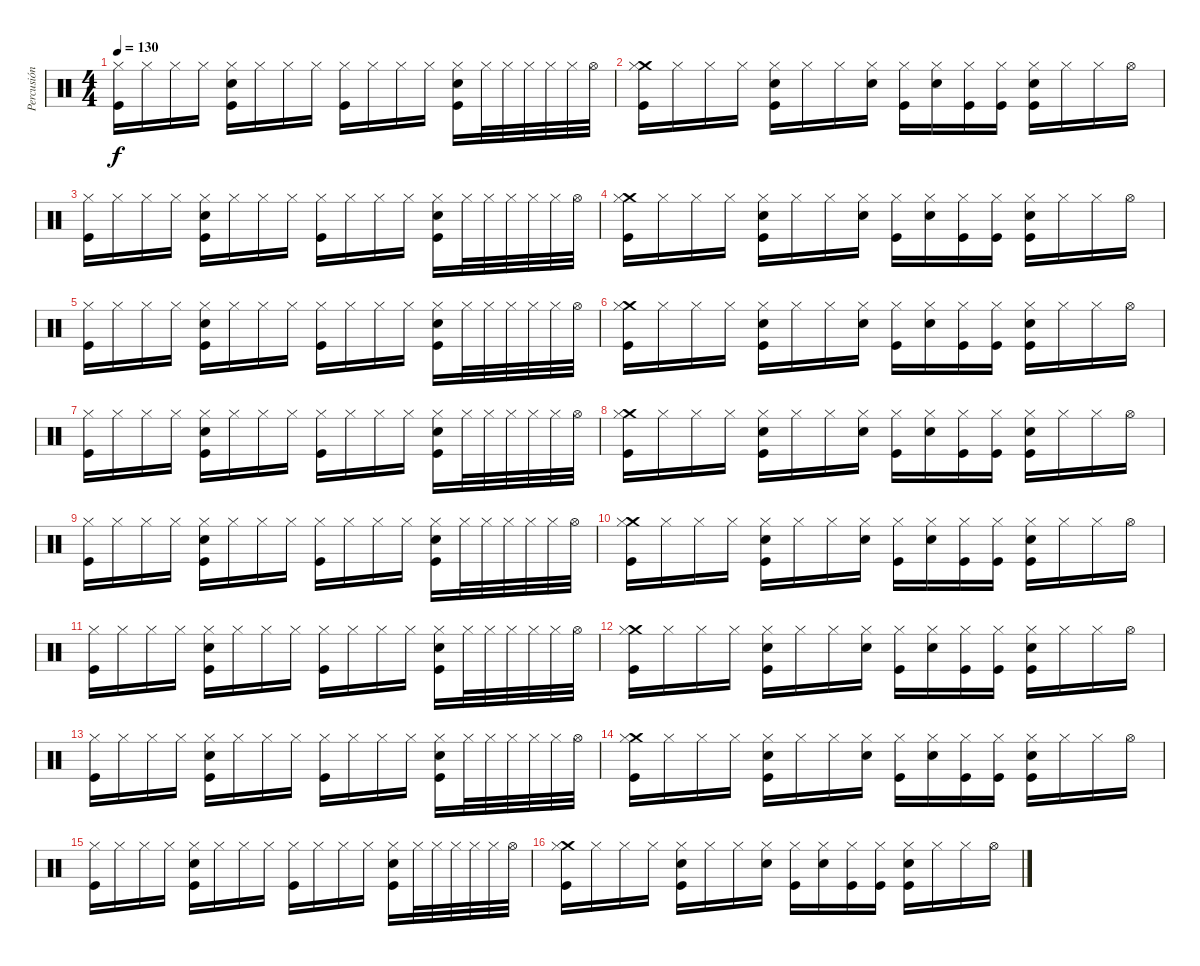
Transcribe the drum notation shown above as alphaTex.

\track ("Percusión" "Percusión") {instrument percussion}
\staff {score}
\articulation defaults
\ts (4 4)
\tempo 130
\clef neutral
\ks c
("Kick (hit)" "Hi-Hat (closed)").16{dy f} "Hi-Hat (closed)".16 "Hi-Hat (closed)".16 "Hi-Hat (closed)".16 ("Kick (hit)" "Snare (hit) 2" "Hi-Hat (closed)").16 "Hi-Hat (closed)".16 "Hi-Hat (closed)".16 "Hi-Hat (closed)".16 ("Kick (hit)" "Hi-Hat (closed)").16 "Hi-Hat (closed)".16 "Hi-Hat (closed)".16 "Hi-Hat (closed)".16 ("Kick (hit)" "Snare (hit) 2" "Hi-Hat (closed)").16 "Hi-Hat (closed)".32 "Hi-Hat (closed)".32 "Hi-Hat (closed)".32 "Hi-Hat (closed)".32 "Hi-Hat (closed)".32 "Hi-Hat (open)".32 |
("Kick (hit)" "Crash medium (hit)" "Hi-Hat (closed)").16 "Hi-Hat (closed)".16 "Hi-Hat (closed)".16 "Hi-Hat (closed)".16 ("Kick (hit)" "Snare (hit) 2" "Hi-Hat (closed)").16 "Hi-Hat (closed)".16 "Hi-Hat (closed)".16 ("Snare (hit) 2" "Hi-Hat (closed)").16 ("Kick (hit)" "Hi-Hat (closed)").16 ("Snare (hit) 2" "Hi-Hat (closed)").16 ("Kick (hit)" "Hi-Hat (closed)").16 ("Kick (hit)" "Hi-Hat (closed)").16 ("Kick (hit)" "Snare (hit) 2" "Hi-Hat (closed)").16 "Hi-Hat (closed)".16 "Hi-Hat (closed)".16 "Hi-Hat (open)".16 |
("Kick (hit)" "Hi-Hat (closed)").16 "Hi-Hat (closed)".16 "Hi-Hat (closed)".16 "Hi-Hat (closed)".16 ("Kick (hit)" "Snare (hit) 2" "Hi-Hat (closed)").16 "Hi-Hat (closed)".16 "Hi-Hat (closed)".16 "Hi-Hat (closed)".16 ("Kick (hit)" "Hi-Hat (closed)").16 "Hi-Hat (closed)".16 "Hi-Hat (closed)".16 "Hi-Hat (closed)".16 ("Kick (hit)" "Snare (hit) 2" "Hi-Hat (closed)").16 "Hi-Hat (closed)".32 "Hi-Hat (closed)".32 "Hi-Hat (closed)".32 "Hi-Hat (closed)".32 "Hi-Hat (closed)".32 "Hi-Hat (open)".32 |
("Kick (hit)" "Crash medium (hit)" "Hi-Hat (closed)").16 "Hi-Hat (closed)".16 "Hi-Hat (closed)".16 "Hi-Hat (closed)".16 ("Kick (hit)" "Snare (hit) 2" "Hi-Hat (closed)").16 "Hi-Hat (closed)".16 "Hi-Hat (closed)".16 ("Snare (hit) 2" "Hi-Hat (closed)").16 ("Kick (hit)" "Hi-Hat (closed)").16 ("Snare (hit) 2" "Hi-Hat (closed)").16 ("Kick (hit)" "Hi-Hat (closed)").16 ("Kick (hit)" "Hi-Hat (closed)").16 ("Kick (hit)" "Snare (hit) 2" "Hi-Hat (closed)").16 "Hi-Hat (closed)".16 "Hi-Hat (closed)".16 "Hi-Hat (open)".16 |
("Kick (hit)" "Hi-Hat (closed)").16 "Hi-Hat (closed)".16 "Hi-Hat (closed)".16 "Hi-Hat (closed)".16 ("Kick (hit)" "Snare (hit) 2" "Hi-Hat (closed)").16 "Hi-Hat (closed)".16 "Hi-Hat (closed)".16 "Hi-Hat (closed)".16 ("Kick (hit)" "Hi-Hat (closed)").16 "Hi-Hat (closed)".16 "Hi-Hat (closed)".16 "Hi-Hat (closed)".16 ("Kick (hit)" "Snare (hit) 2" "Hi-Hat (closed)").16 "Hi-Hat (closed)".32 "Hi-Hat (closed)".32 "Hi-Hat (closed)".32 "Hi-Hat (closed)".32 "Hi-Hat (closed)".32 "Hi-Hat (open)".32 |
("Kick (hit)" "Crash medium (hit)" "Hi-Hat (closed)").16 "Hi-Hat (closed)".16 "Hi-Hat (closed)".16 "Hi-Hat (closed)".16 ("Kick (hit)" "Snare (hit) 2" "Hi-Hat (closed)").16 "Hi-Hat (closed)".16 "Hi-Hat (closed)".16 ("Snare (hit) 2" "Hi-Hat (closed)").16 ("Kick (hit)" "Hi-Hat (closed)").16 ("Snare (hit) 2" "Hi-Hat (closed)").16 ("Kick (hit)" "Hi-Hat (closed)").16 ("Kick (hit)" "Hi-Hat (closed)").16 ("Kick (hit)" "Snare (hit) 2" "Hi-Hat (closed)").16 "Hi-Hat (closed)".16 "Hi-Hat (closed)".16 "Hi-Hat (open)".16 |
("Kick (hit)" "Hi-Hat (closed)").16 "Hi-Hat (closed)".16 "Hi-Hat (closed)".16 "Hi-Hat (closed)".16 ("Kick (hit)" "Snare (hit) 2" "Hi-Hat (closed)").16 "Hi-Hat (closed)".16 "Hi-Hat (closed)".16 "Hi-Hat (closed)".16 ("Kick (hit)" "Hi-Hat (closed)").16 "Hi-Hat (closed)".16 "Hi-Hat (closed)".16 "Hi-Hat (closed)".16 ("Kick (hit)" "Snare (hit) 2" "Hi-Hat (closed)").16 "Hi-Hat (closed)".32 "Hi-Hat (closed)".32 "Hi-Hat (closed)".32 "Hi-Hat (closed)".32 "Hi-Hat (closed)".32 "Hi-Hat (open)".32 |
("Kick (hit)" "Crash medium (hit)" "Hi-Hat (closed)").16 "Hi-Hat (closed)".16 "Hi-Hat (closed)".16 "Hi-Hat (closed)".16 ("Kick (hit)" "Snare (hit) 2" "Hi-Hat (closed)").16 "Hi-Hat (closed)".16 "Hi-Hat (closed)".16 ("Snare (hit) 2" "Hi-Hat (closed)").16 ("Kick (hit)" "Hi-Hat (closed)").16 ("Snare (hit) 2" "Hi-Hat (closed)").16 ("Kick (hit)" "Hi-Hat (closed)").16 ("Kick (hit)" "Hi-Hat (closed)").16 ("Kick (hit)" "Snare (hit) 2" "Hi-Hat (closed)").16 "Hi-Hat (closed)".16 "Hi-Hat (closed)".16 "Hi-Hat (open)".16 |
("Kick (hit)" "Hi-Hat (closed)").16 "Hi-Hat (closed)".16 "Hi-Hat (closed)".16 "Hi-Hat (closed)".16 ("Kick (hit)" "Snare (hit) 2" "Hi-Hat (closed)").16 "Hi-Hat (closed)".16 "Hi-Hat (closed)".16 "Hi-Hat (closed)".16 ("Kick (hit)" "Hi-Hat (closed)").16 "Hi-Hat (closed)".16 "Hi-Hat (closed)".16 "Hi-Hat (closed)".16 ("Kick (hit)" "Snare (hit) 2" "Hi-Hat (closed)").16 "Hi-Hat (closed)".32 "Hi-Hat (closed)".32 "Hi-Hat (closed)".32 "Hi-Hat (closed)".32 "Hi-Hat (closed)".32 "Hi-Hat (open)".32 |
("Kick (hit)" "Crash medium (hit)" "Hi-Hat (closed)").16 "Hi-Hat (closed)".16 "Hi-Hat (closed)".16 "Hi-Hat (closed)".16 ("Kick (hit)" "Snare (hit) 2" "Hi-Hat (closed)").16 "Hi-Hat (closed)".16 "Hi-Hat (closed)".16 ("Snare (hit) 2" "Hi-Hat (closed)").16 ("Kick (hit)" "Hi-Hat (closed)").16 ("Snare (hit) 2" "Hi-Hat (closed)").16 ("Kick (hit)" "Hi-Hat (closed)").16 ("Kick (hit)" "Hi-Hat (closed)").16 ("Kick (hit)" "Snare (hit) 2" "Hi-Hat (closed)").16 "Hi-Hat (closed)".16 "Hi-Hat (closed)".16 "Hi-Hat (open)".16 |
("Kick (hit)" "Hi-Hat (closed)").16 "Hi-Hat (closed)".16 "Hi-Hat (closed)".16 "Hi-Hat (closed)".16 ("Kick (hit)" "Snare (hit) 2" "Hi-Hat (closed)").16 "Hi-Hat (closed)".16 "Hi-Hat (closed)".16 "Hi-Hat (closed)".16 ("Kick (hit)" "Hi-Hat (closed)").16 "Hi-Hat (closed)".16 "Hi-Hat (closed)".16 "Hi-Hat (closed)".16 ("Kick (hit)" "Snare (hit) 2" "Hi-Hat (closed)").16 "Hi-Hat (closed)".32 "Hi-Hat (closed)".32 "Hi-Hat (closed)".32 "Hi-Hat (closed)".32 "Hi-Hat (closed)".32 "Hi-Hat (open)".32 |
("Kick (hit)" "Crash medium (hit)" "Hi-Hat (closed)").16 "Hi-Hat (closed)".16 "Hi-Hat (closed)".16 "Hi-Hat (closed)".16 ("Kick (hit)" "Snare (hit) 2" "Hi-Hat (closed)").16 "Hi-Hat (closed)".16 "Hi-Hat (closed)".16 ("Snare (hit) 2" "Hi-Hat (closed)").16 ("Kick (hit)" "Hi-Hat (closed)").16 ("Snare (hit) 2" "Hi-Hat (closed)").16 ("Kick (hit)" "Hi-Hat (closed)").16 ("Kick (hit)" "Hi-Hat (closed)").16 ("Kick (hit)" "Snare (hit) 2" "Hi-Hat (closed)").16 "Hi-Hat (closed)".16 "Hi-Hat (closed)".16 "Hi-Hat (open)".16 |
("Kick (hit)" "Hi-Hat (closed)").16 "Hi-Hat (closed)".16 "Hi-Hat (closed)".16 "Hi-Hat (closed)".16 ("Kick (hit)" "Snare (hit) 2" "Hi-Hat (closed)").16 "Hi-Hat (closed)".16 "Hi-Hat (closed)".16 "Hi-Hat (closed)".16 ("Kick (hit)" "Hi-Hat (closed)").16 "Hi-Hat (closed)".16 "Hi-Hat (closed)".16 "Hi-Hat (closed)".16 ("Kick (hit)" "Snare (hit) 2" "Hi-Hat (closed)").16 "Hi-Hat (closed)".32 "Hi-Hat (closed)".32 "Hi-Hat (closed)".32 "Hi-Hat (closed)".32 "Hi-Hat (closed)".32 "Hi-Hat (open)".32 |
("Kick (hit)" "Crash medium (hit)" "Hi-Hat (closed)").16 "Hi-Hat (closed)".16 "Hi-Hat (closed)".16 "Hi-Hat (closed)".16 ("Kick (hit)" "Snare (hit) 2" "Hi-Hat (closed)").16 "Hi-Hat (closed)".16 "Hi-Hat (closed)".16 ("Snare (hit) 2" "Hi-Hat (closed)").16 ("Kick (hit)" "Hi-Hat (closed)").16 ("Snare (hit) 2" "Hi-Hat (closed)").16 ("Kick (hit)" "Hi-Hat (closed)").16 ("Kick (hit)" "Hi-Hat (closed)").16 ("Kick (hit)" "Snare (hit) 2" "Hi-Hat (closed)").16 "Hi-Hat (closed)".16 "Hi-Hat (closed)".16 "Hi-Hat (open)".16 |
("Kick (hit)" "Hi-Hat (closed)").16 "Hi-Hat (closed)".16 "Hi-Hat (closed)".16 "Hi-Hat (closed)".16 ("Kick (hit)" "Snare (hit) 2" "Hi-Hat (closed)").16 "Hi-Hat (closed)".16 "Hi-Hat (closed)".16 "Hi-Hat (closed)".16 ("Kick (hit)" "Hi-Hat (closed)").16 "Hi-Hat (closed)".16 "Hi-Hat (closed)".16 "Hi-Hat (closed)".16 ("Kick (hit)" "Snare (hit) 2" "Hi-Hat (closed)").16 "Hi-Hat (closed)".32 "Hi-Hat (closed)".32 "Hi-Hat (closed)".32 "Hi-Hat (closed)".32 "Hi-Hat (closed)".32 "Hi-Hat (open)".32 |
("Kick (hit)" "Crash medium (hit)" "Hi-Hat (closed)").16 "Hi-Hat (closed)".16 "Hi-Hat (closed)".16 "Hi-Hat (closed)".16 ("Kick (hit)" "Snare (hit) 2" "Hi-Hat (closed)").16 "Hi-Hat (closed)".16 "Hi-Hat (closed)".16 ("Snare (hit) 2" "Hi-Hat (closed)").16 ("Kick (hit)" "Hi-Hat (closed)").16 ("Snare (hit) 2" "Hi-Hat (closed)").16 ("Kick (hit)" "Hi-Hat (closed)").16 ("Kick (hit)" "Hi-Hat (closed)").16 ("Kick (hit)" "Snare (hit) 2" "Hi-Hat (closed)").16 "Hi-Hat (closed)".16 "Hi-Hat (closed)".16 "Hi-Hat (open)".16
